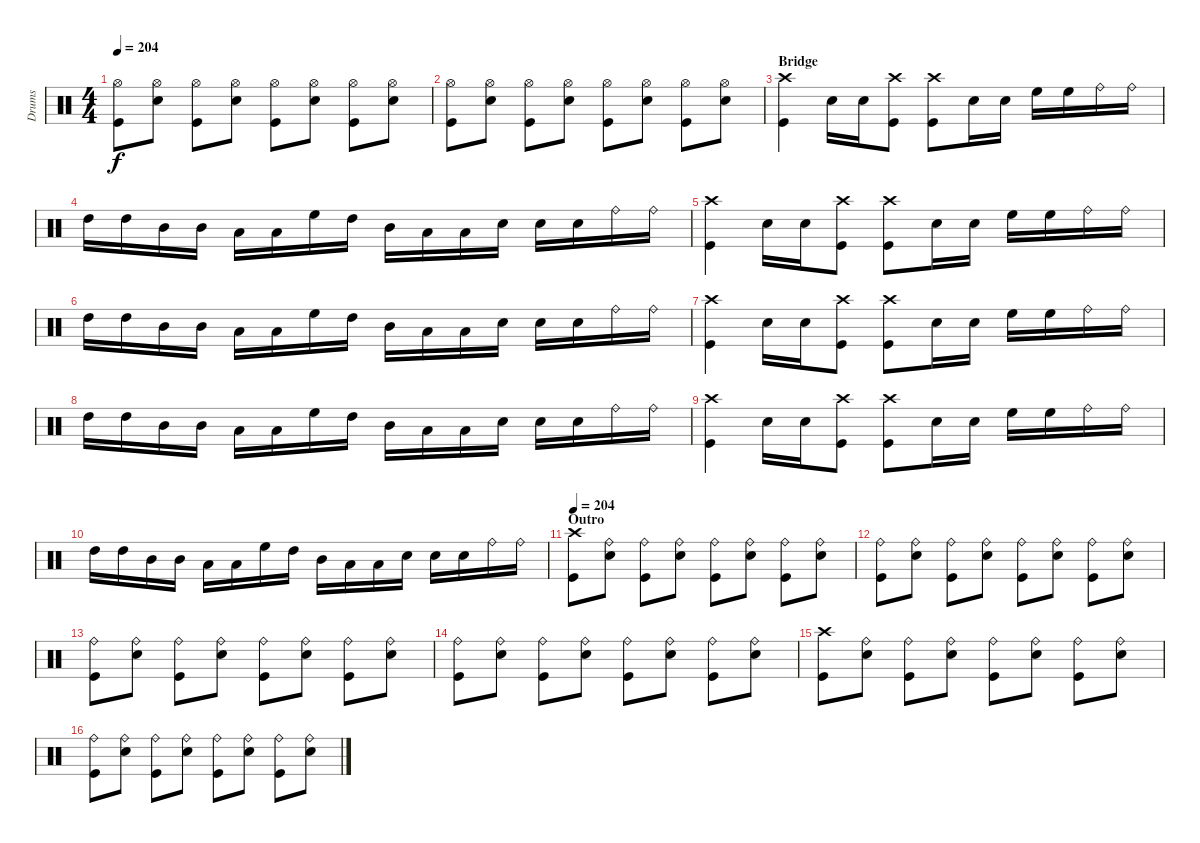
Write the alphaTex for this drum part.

\track ("Drums" "Drums") {instrument percussion}
\staff {score}
\articulation defaults
\ts (4 4)
\tempo 204
\clef neutral
\ks c
("Hi-Hat (open)" "Kick (hit)").8{dy f} ("Hi-Hat (open)" "Electric Snare (hit)").8 ("Hi-Hat (open)" "Kick (hit)").8 ("Hi-Hat (open)" "Electric Snare (hit)").8 ("Hi-Hat (open)" "Kick (hit)").8 ("Hi-Hat (open)" "Electric Snare (hit)").8 ("Hi-Hat (open)" "Kick (hit)").8 ("Hi-Hat (open)" "Electric Snare (hit)").8 |
("Hi-Hat (open)" "Kick (hit)").8 ("Hi-Hat (open)" "Electric Snare (hit)").8 ("Hi-Hat (open)" "Kick (hit)").8 ("Hi-Hat (open)" "Electric Snare (hit)").8 ("Hi-Hat (open)" "Kick (hit)").8 ("Hi-Hat (open)" "Electric Snare (hit)").8 ("Hi-Hat (open)" "Kick (hit)").8 ("Hi-Hat (open)" "Electric Snare (hit)").8 |
\section ("" "Bridge")
("Crash high (hit)" "Kick (hit)").4 "Electric Snare (hit)".16 "Electric Snare (hit)".16 ("Crash high (hit)" "Kick (hit)").8 ("Crash high (hit)" "Kick (hit)").8 "Electric Snare (hit)".16 "Electric Snare (hit)".16 "High Floor Tom (hit)".16 "High Floor Tom (hit)".16 "Ride (bell)".16 "Ride (bell)".16 |
"High Tom (hit)".16 "High Tom (hit)".16 "Mid Tom (hit)".16 "Mid Tom (hit)".16 "Low Tom (hit)".16 "Low Tom (hit)".16 "High Floor Tom (hit)".16 "High Tom (hit)".16 "Mid Tom (hit)".16 "Low Tom (hit)".16 "Low Tom (hit)".16 "Electric Snare (hit)".16 "Electric Snare (hit)".16 "Electric Snare (hit)".16 "Ride (bell)".16 "Ride (bell)".16 |
("Crash high (hit)" "Kick (hit)").4 "Electric Snare (hit)".16 "Electric Snare (hit)".16 ("Crash high (hit)" "Kick (hit)").8 ("Crash high (hit)" "Kick (hit)").8 "Electric Snare (hit)".16 "Electric Snare (hit)".16 "High Floor Tom (hit)".16 "High Floor Tom (hit)".16 "Ride (bell)".16 "Ride (bell)".16 |
"High Tom (hit)".16 "High Tom (hit)".16 "Mid Tom (hit)".16 "Mid Tom (hit)".16 "Low Tom (hit)".16 "Low Tom (hit)".16 "High Floor Tom (hit)".16 "High Tom (hit)".16 "Mid Tom (hit)".16 "Low Tom (hit)".16 "Low Tom (hit)".16 "Electric Snare (hit)".16 "Electric Snare (hit)".16 "Electric Snare (hit)".16 "Ride (bell)".16 "Ride (bell)".16 |
("Crash high (hit)" "Kick (hit)").4 "Electric Snare (hit)".16 "Electric Snare (hit)".16 ("Crash high (hit)" "Kick (hit)").8 ("Crash high (hit)" "Kick (hit)").8 "Electric Snare (hit)".16 "Electric Snare (hit)".16 "High Floor Tom (hit)".16 "High Floor Tom (hit)".16 "Ride (bell)".16 "Ride (bell)".16 |
"High Tom (hit)".16 "High Tom (hit)".16 "Mid Tom (hit)".16 "Mid Tom (hit)".16 "Low Tom (hit)".16 "Low Tom (hit)".16 "High Floor Tom (hit)".16 "High Tom (hit)".16 "Mid Tom (hit)".16 "Low Tom (hit)".16 "Low Tom (hit)".16 "Electric Snare (hit)".16 "Electric Snare (hit)".16 "Electric Snare (hit)".16 "Ride (bell)".16 "Ride (bell)".16 |
("Crash high (hit)" "Kick (hit)").4 "Electric Snare (hit)".16 "Electric Snare (hit)".16 ("Crash high (hit)" "Kick (hit)").8 ("Crash high (hit)" "Kick (hit)").8 "Electric Snare (hit)".16 "Electric Snare (hit)".16 "High Floor Tom (hit)".16 "High Floor Tom (hit)".16 "Ride (bell)".16 "Ride (bell)".16 |
"High Tom (hit)".16 "High Tom (hit)".16 "Mid Tom (hit)".16 "Mid Tom (hit)".16 "Low Tom (hit)".16 "Low Tom (hit)".16 "High Floor Tom (hit)".16 "High Tom (hit)".16 "Mid Tom (hit)".16 "Low Tom (hit)".16 "Low Tom (hit)".16 "Electric Snare (hit)".16 "Electric Snare (hit)".16 "Electric Snare (hit)".16 "Ride (bell)".16 "Ride (bell)".16 |
\section ("" "Outro")
\tempo 204
("Crash high (hit)" "Kick (hit)").8 ("Ride (bell)" "Electric Snare (hit)").8 ("Ride (bell)" "Kick (hit)").8 ("Ride (bell)" "Electric Snare (hit)").8 ("Ride (bell)" "Kick (hit)").8 ("Ride (bell)" "Electric Snare (hit)").8 ("Ride (bell)" "Kick (hit)").8 ("Ride (bell)" "Electric Snare (hit)").8 |
("Ride (bell)" "Kick (hit)").8 ("Ride (bell)" "Electric Snare (hit)").8 ("Ride (bell)" "Kick (hit)").8 ("Ride (bell)" "Electric Snare (hit)").8 ("Ride (bell)" "Kick (hit)").8 ("Ride (bell)" "Electric Snare (hit)").8 ("Ride (bell)" "Kick (hit)").8 ("Ride (bell)" "Electric Snare (hit)").8 |
("Ride (bell)" "Kick (hit)").8 ("Ride (bell)" "Electric Snare (hit)").8 ("Ride (bell)" "Kick (hit)").8 ("Ride (bell)" "Electric Snare (hit)").8 ("Ride (bell)" "Kick (hit)").8 ("Ride (bell)" "Electric Snare (hit)").8 ("Ride (bell)" "Kick (hit)").8 ("Ride (bell)" "Electric Snare (hit)").8 |
("Ride (bell)" "Kick (hit)").8 ("Ride (bell)" "Electric Snare (hit)").8 ("Ride (bell)" "Kick (hit)").8 ("Ride (bell)" "Electric Snare (hit)").8 ("Ride (bell)" "Kick (hit)").8 ("Ride (bell)" "Electric Snare (hit)").8 ("Ride (bell)" "Kick (hit)").8 ("Ride (bell)" "Electric Snare (hit)").8 |
("Crash high (hit)" "Kick (hit)").8 ("Ride (bell)" "Electric Snare (hit)").8 ("Ride (bell)" "Kick (hit)").8 ("Ride (bell)" "Electric Snare (hit)").8 ("Ride (bell)" "Kick (hit)").8 ("Ride (bell)" "Electric Snare (hit)").8 ("Ride (bell)" "Kick (hit)").8 ("Ride (bell)" "Electric Snare (hit)").8 |
("Ride (bell)" "Kick (hit)").8 ("Ride (bell)" "Electric Snare (hit)").8 ("Ride (bell)" "Kick (hit)").8 ("Ride (bell)" "Electric Snare (hit)").8 ("Ride (bell)" "Kick (hit)").8 ("Ride (bell)" "Electric Snare (hit)").8 ("Ride (bell)" "Kick (hit)").8 ("Ride (bell)" "Electric Snare (hit)").8
